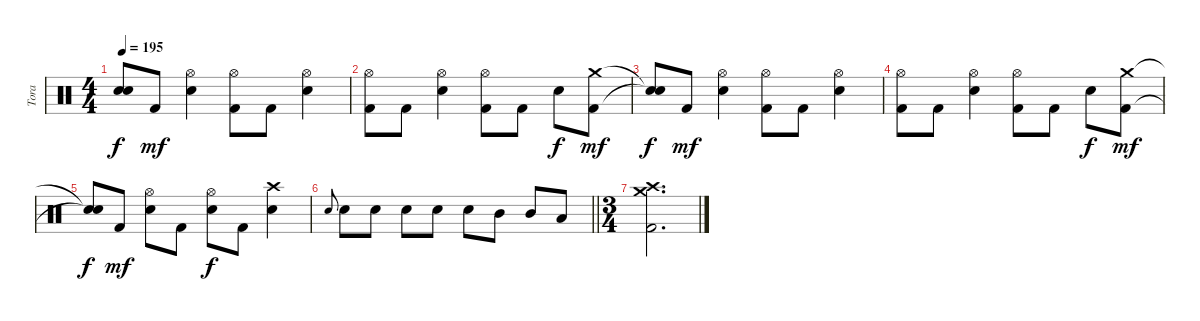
\track ("Tora" "Tora") {instrument percussion}
\staff {score}
\articulation defaults
\ts (4 4)
\tempo 195
\clef neutral
\ks c
("Snare (hit)"{t} "Snare (hit)"{t}).8{dy f} "Kick (hit) 2".8{dy mf} ("Hi-Hat (open)" "Electric Snare (hit)").4 ("Hi-Hat (open)" "Kick (hit) 2").8 "Kick (hit) 2".8 ("Hi-Hat (open)" "Electric Snare (hit)").4 |
("Hi-Hat (open)" "Kick (hit) 2").8 "Kick (hit) 2".8 ("Hi-Hat (open)" "Electric Snare (hit)").4 ("Hi-Hat (open)" "Kick (hit) 2").8 "Kick (hit) 2".8 "Electric Snare (hit)".8{dy f} ("Crash medium (hit)" "Kick (hit) 2").8{dy mf} |
("Snare (hit)"{t} "Snare (hit)"{t}).8{dy f} "Kick (hit) 2".8{dy mf} ("Hi-Hat (open)" "Electric Snare (hit)").4 ("Hi-Hat (open)" "Kick (hit) 2").8 "Kick (hit) 2".8 ("Hi-Hat (open)" "Electric Snare (hit)").4 |
("Hi-Hat (open)" "Kick (hit) 2").8 "Kick (hit) 2".8 ("Hi-Hat (open)" "Electric Snare (hit)").4 ("Hi-Hat (open)" "Kick (hit) 2").8 "Kick (hit) 2".8 "Electric Snare (hit)".8{dy f} ("Crash medium (hit)" "Kick (hit) 2").8{dy mf} |
("Snare (hit)"{t} "Snare (hit)"{t}).8{dy f} "Kick (hit) 2".8{dy mf} ("Hi-Hat (open)" "Electric Snare (hit)").8 "Kick (hit) 2".8 ("Hi-Hat (open)" "Electric Snare (hit)").8{dy f} "Kick (hit) 2".8 ("Crash high (hit)" "Electric Snare (hit)").4 |
\barLineRight lightlight "Electric Snare (hit)".8{gr onbeat} "Electric Snare (hit)".8 "Electric Snare (hit)".8 "Electric Snare (hit)".8 "Electric Snare (hit)".8 "Electric Snare (hit)".8 "Mid Tom (hit)".8 "Mid Tom (hit)".8 "Low Tom (hit)".8
|
\ts (3 4)
("Crash medium (hit)" "Crash high (hit)" "Kick (hit) 2").2{d}
